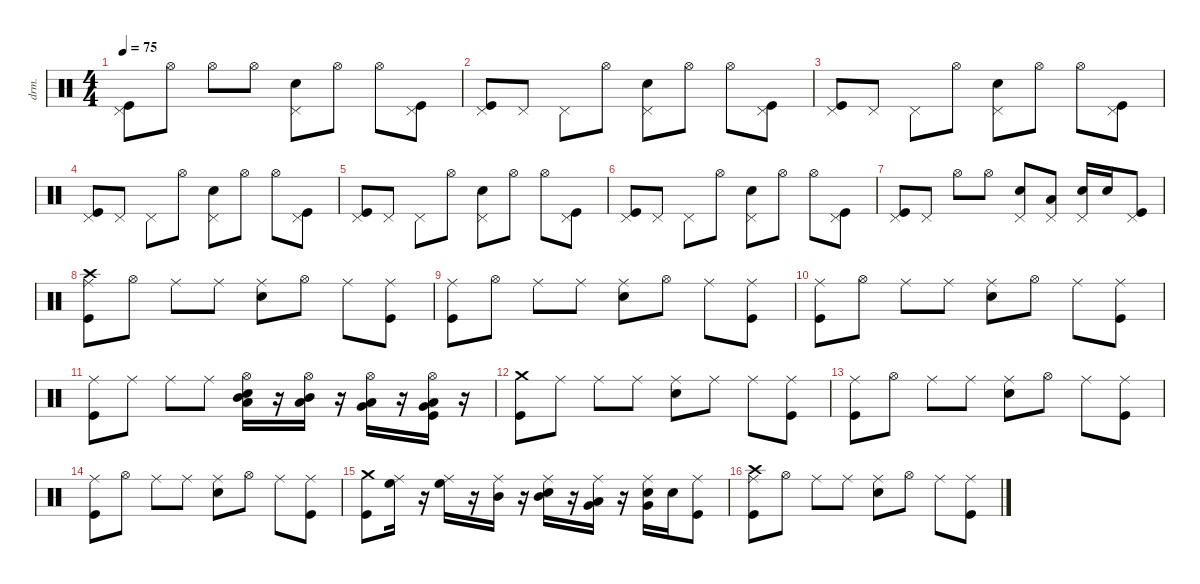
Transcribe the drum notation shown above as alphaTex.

\defaultSystemsLayout 4
\hideDynamics
\bracketExtendMode nobrackets
\otherSystemsTrackNameOrientation horizontal
\track ("Drums" "drm.") {instrument percussion}
\staff {score}
\articulation defaults
\ts (4 4)
\tempo 75
\clef neutral
\ks c
("Pedal Hi-Hat (hit)" "Kick (hit)").8{dy f beam Down} "Hi-Hat (open)".8{beam Down} "Hi-Hat (open)".8{beam Down} "Hi-Hat (open)".8{beam Down} ("Snare (hit) 2" "Pedal Hi-Hat (hit)").8{beam Down} "Hi-Hat (open)".8{beam Down} "Hi-Hat (open)".8{beam Down} ("Kick (hit)" "Pedal Hi-Hat (hit)").8{beam Down} |
("Pedal Hi-Hat (hit)" "Kick (hit)").8{beam Up} "Pedal Hi-Hat (hit)".8{beam Up} "Pedal Hi-Hat (hit)".8{beam Down} "Hi-Hat (open)".8{beam Down} ("Snare (hit) 2" "Pedal Hi-Hat (hit)").8{beam Down} "Hi-Hat (open)".8{beam Down} "Hi-Hat (open)".8{beam Down} ("Kick (hit)" "Pedal Hi-Hat (hit)").8{beam Down} |
("Pedal Hi-Hat (hit)" "Kick (hit)").8{beam Up} "Pedal Hi-Hat (hit)".8{beam Up} "Pedal Hi-Hat (hit)".8{beam Down} "Hi-Hat (open)".8{beam Down} ("Snare (hit) 2" "Pedal Hi-Hat (hit)").8{beam Down} "Hi-Hat (open)".8{beam Down} "Hi-Hat (open)".8{beam Down} ("Kick (hit)" "Pedal Hi-Hat (hit)").8{beam Down} |
("Pedal Hi-Hat (hit)" "Kick (hit)").8{beam Up} "Pedal Hi-Hat (hit)".8{beam Up} "Pedal Hi-Hat (hit)".8{beam Down} "Hi-Hat (open)".8{beam Down} ("Snare (hit) 2" "Pedal Hi-Hat (hit)").8{beam Down} "Hi-Hat (open)".8{beam Down} "Hi-Hat (open)".8{beam Down} ("Kick (hit)" "Pedal Hi-Hat (hit)").8{beam Down} |
("Pedal Hi-Hat (hit)" "Kick (hit)").8{beam Up} "Pedal Hi-Hat (hit)".8{beam Up} "Pedal Hi-Hat (hit)".8{beam Down} "Hi-Hat (open)".8{beam Down} ("Snare (hit) 2" "Pedal Hi-Hat (hit)").8{beam Down} "Hi-Hat (open)".8{beam Down} "Hi-Hat (open)".8{beam Down} ("Kick (hit)" "Pedal Hi-Hat (hit)").8{beam Down} |
("Pedal Hi-Hat (hit)" "Kick (hit)").8{beam Up} "Pedal Hi-Hat (hit)".8{beam Up} "Pedal Hi-Hat (hit)".8{beam Down} "Hi-Hat (open)".8{beam Down} ("Snare (hit) 2" "Pedal Hi-Hat (hit)").8{beam Down} "Hi-Hat (open)".8{beam Down} "Hi-Hat (open)".8{beam Down} ("Kick (hit)" "Pedal Hi-Hat (hit)").8{beam Down} |
("Pedal Hi-Hat (hit)" "Kick (hit)").8{beam Up} "Pedal Hi-Hat (hit)".8{beam Up} "Hi-Hat (open)".8{beam Down} "Hi-Hat (open)".8{beam Down} ("Snare (hit) 2" "Pedal Hi-Hat (hit)").8{beam Up} ("Low Floor Tom (hit)" "Pedal Hi-Hat (hit)").8{beam Up} ("Snare (hit) 2" "Pedal Hi-Hat (hit)").16{beam Up} "Snare (hit) 2".16{beam Up} ("Kick (hit)" "Pedal Hi-Hat (hit)").8{beam Up} |
("Crash high (hit)" "Kick (hit)" "Ride (middle)").8{beam Down} "Hi-Hat (open)".8{beam Down} "Ride (middle)".8{beam Down} "Ride (middle)".8{beam Down} ("Snare (hit) 2" "Ride (middle)").8{beam Down} "Hi-Hat (open)".8{beam Down} "Ride (middle)".8{beam Down} ("Kick (hit)" "Ride (middle)").8{beam Down} |
("Ride (middle)" "Kick (hit)").8{beam Down} "Hi-Hat (open)".8{beam Down} "Ride (middle)".8{beam Down} "Ride (middle)".8{beam Down} ("Snare (hit) 2" "Ride (middle)").8{beam Down} "Hi-Hat (open)".8{beam Down} "Ride (middle)".8{beam Down} ("Kick (hit)" "Ride (middle)").8{beam Down} |
("Ride (middle)" "Kick (hit)").8{beam Down} "Hi-Hat (open)".8{beam Down} "Ride (middle)".8{beam Down} "Ride (middle)".8{beam Down} ("Snare (hit) 2" "Ride (middle)").8{beam Down} "Hi-Hat (open)".8{beam Down} "Ride (middle)".8{beam Down} ("Kick (hit)" "Ride (middle)").8{beam Down} |
("Ride (middle)" "Kick (hit)").8{beam Down} "Ride (middle)".8{beam Down} "Ride (middle)".8{beam Down} "Ride (middle)".8{beam Down} ("Low Tom (hit)" "Mid Tom (hit)" "Snare (hit) 2" "Hi-Hat (open)").16{beam Down} r.16{beam Down} ("Low Tom (hit)" "Mid Tom (hit)" "Hi-Hat (open)").16{beam Down} r.16{beam Down} ("Low Floor Tom (hit)" "Very Low Tom (hit)" "Hi-Hat (open)").16{beam Down} r.16{beam Down} ("Low Floor Tom (hit)" "Very Low Tom (hit)" "Kick (hit)" "Hi-Hat (open)").16{beam Down} r.16{beam Down} |
("Crash medium (hit)" "Kick (hit)").8{beam Down} "Ride (middle)".8{beam Down} "Ride (middle)".8{beam Down} "Ride (middle)".8{beam Down} ("Snare (hit) 2" "Ride (middle)").8{beam Down} "Ride (middle)".8{beam Down} "Ride (middle)".8{beam Down} ("Kick (hit)" "Ride (middle)").8{beam Down} |
("Ride (middle)" "Kick (hit)").8{beam Down} "Hi-Hat (open)".8{beam Down} "Ride (middle)".8{beam Down} "Ride (middle)".8{beam Down} ("Snare (hit) 2" "Ride (middle)").8{beam Down} "Hi-Hat (open)".8{beam Down} "Ride (middle)".8{beam Down} ("Kick (hit)" "Ride (middle)").8{beam Down} |
("Ride (middle)" "Kick (hit)").8{beam Down} "Hi-Hat (open)".8{beam Down} "Ride (middle)".8{beam Down} "Ride (middle)".8{beam Down} ("Snare (hit) 2" "Ride (middle)").8{beam Down} "Hi-Hat (open)".8{beam Down} "Ride (middle)".8{beam Down} ("Kick (hit)" "Ride (middle)").8{beam Down} |
("Crash medium (hit)" "Kick (hit)").8{beam Down} ("High Floor Tom (hit)" "Ride (middle)").16{beam Down} r.16{beam Down} ("High Floor Tom (hit)" "Ride (middle)").16{beam Down} r.16{beam Down} ("Mid Tom (hit)" "Ride (middle)").16{beam Down} r.16{beam Down} ("Mid Tom (hit)" "Snare (hit) 2" "Ride (middle)").16{beam Down} r.16{beam Down} ("Very Low Tom (hit)" "Low Floor Tom (hit)" "Ride (middle)").16{beam Down} r.16{beam Down} ("Very Low Tom (hit)" "Snare (hit) 2" "Ride (middle)").16{beam Down} "Snare (hit) 2".16{beam Down} ("Kick (hit)" "Ride (middle)").8{beam Down} |
("Crash high (hit)" "Kick (hit)" "Ride (middle)").8{beam Down} "Hi-Hat (open)".8{beam Down} "Ride (middle)".8{beam Down} "Ride (middle)".8{beam Down} ("Snare (hit) 2" "Ride (middle)").8{beam Down} "Hi-Hat (open)".8{beam Down} "Ride (middle)".8{beam Down} ("Kick (hit)" "Ride (middle)").8{beam Down}
